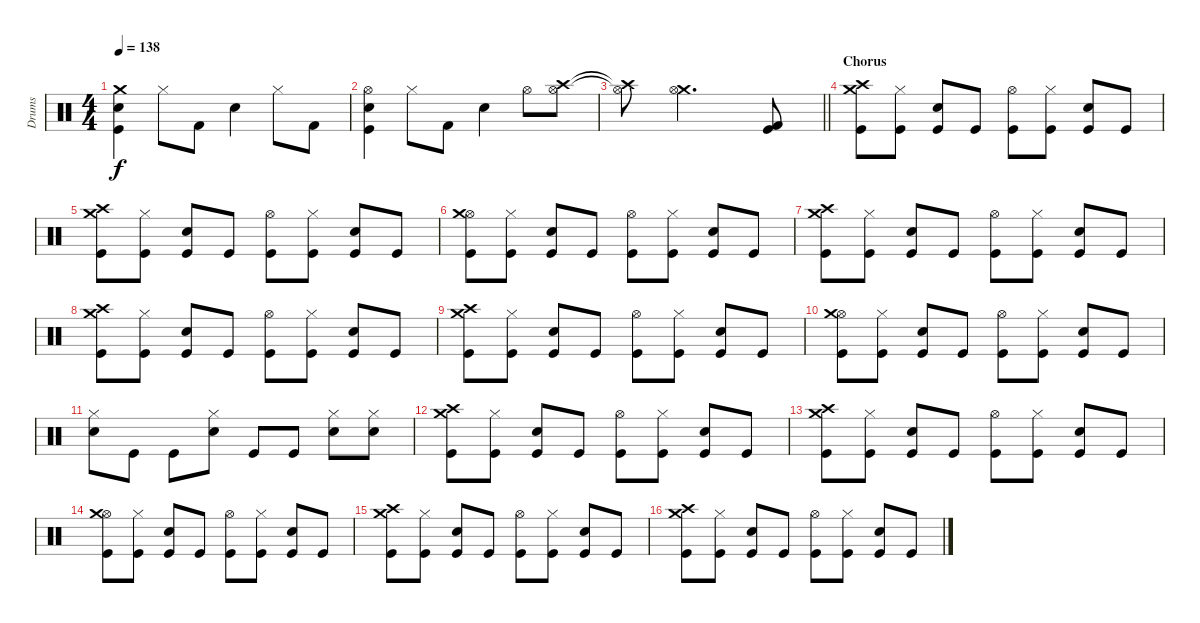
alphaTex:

\track ("Drums" "Drums") {instrument percussion}
\staff {score}
\articulation defaults
\ts (4 4)
\tempo 138
\clef neutral
\ks c
("Crash medium (hit)" "Electric Snare (hit)" "Kick (hit)").4{dy f} "Hi-Hat (closed)".8 "Kick (hit) 2".8 "Electric Snare (hit)".4 "Hi-Hat (closed)".8 "Kick (hit) 2".8 |
("Hi-Hat (open)" "Electric Snare (hit)" "Kick (hit)").4 "Hi-Hat (closed)".8 "Kick (hit) 2".8 "Electric Snare (hit)".4 "Hi-Hat (open)".8 ("Crash high (hit)" "Hi-Hat (open)").8 |
\barLineRight lightlight
("Crash high (hit)"{t} "Hi-Hat (open)"{t}).8 ("Crash medium (hit)" "Hi-Hat (open)").2{d} ("Kick (hit)" "Kick (hit) 2").8{volume 13} |
\section ("" "Chorus")
("Kick (hit)" "Crash high (hit)" "Crash medium (hit)").8 ("Hi-Hat (closed)" "Kick (hit)").8 ("Electric Snare (hit)" "Kick (hit)").8 "Kick (hit)".8 ("Hi-Hat (open)" "Kick (hit)").8 ("Hi-Hat (closed)" "Kick (hit)").8 ("Electric Snare (hit)" "Kick (hit)").8 "Kick (hit)".8 |
("Kick (hit)" "Crash high (hit)" "Crash medium (hit)").8 ("Hi-Hat (closed)" "Kick (hit)").8 ("Electric Snare (hit)" "Kick (hit)").8 "Kick (hit)".8 ("Hi-Hat (open)" "Kick (hit)").8 ("Hi-Hat (closed)" "Kick (hit)").8 ("Electric Snare (hit)" "Kick (hit)").8 "Kick (hit)".8 |
("Kick (hit)" "Hi-Hat (open)" "Crash medium (hit)").8 ("Hi-Hat (closed)" "Kick (hit)").8 ("Electric Snare (hit)" "Kick (hit)").8 "Kick (hit)".8 ("Hi-Hat (open)" "Kick (hit)").8 ("Hi-Hat (closed)" "Kick (hit)").8 ("Electric Snare (hit)" "Kick (hit)").8 "Kick (hit)".8 |
("Kick (hit)" "Crash high (hit)" "Crash medium (hit)").8 ("Hi-Hat (closed)" "Kick (hit)").8 ("Electric Snare (hit)" "Kick (hit)").8 "Kick (hit)".8 ("Hi-Hat (open)" "Kick (hit)").8 ("Hi-Hat (closed)" "Kick (hit)").8 ("Electric Snare (hit)" "Kick (hit)").8 "Kick (hit)".8 |
("Kick (hit)" "Crash high (hit)" "Crash medium (hit)").8 ("Hi-Hat (closed)" "Kick (hit)").8 ("Electric Snare (hit)" "Kick (hit)").8 "Kick (hit)".8 ("Hi-Hat (open)" "Kick (hit)").8 ("Hi-Hat (closed)" "Kick (hit)").8 ("Electric Snare (hit)" "Kick (hit)").8 "Kick (hit)".8 |
("Kick (hit)" "Crash high (hit)" "Crash medium (hit)").8 ("Hi-Hat (closed)" "Kick (hit)").8 ("Electric Snare (hit)" "Kick (hit)").8 "Kick (hit)".8 ("Hi-Hat (open)" "Kick (hit)").8 ("Hi-Hat (closed)" "Kick (hit)").8 ("Electric Snare (hit)" "Kick (hit)").8 "Kick (hit)".8 |
("Kick (hit)" "Hi-Hat (open)" "Crash medium (hit)").8 ("Hi-Hat (closed)" "Kick (hit)").8 ("Electric Snare (hit)" "Kick (hit)").8 "Kick (hit)".8 ("Hi-Hat (open)" "Kick (hit)").8 ("Hi-Hat (closed)" "Kick (hit)").8 ("Electric Snare (hit)" "Kick (hit)").8 "Kick (hit)".8 |
("Electric Snare (hit)" "Hi-Hat (closed)").8 "Kick (hit)".8 "Kick (hit)".8 ("Electric Snare (hit)" "Hi-Hat (closed)").8 "Kick (hit)".8 "Kick (hit)".8 ("Electric Snare (hit)" "Hi-Hat (closed)").8 ("Electric Snare (hit)" "Hi-Hat (closed)").8 |
("Kick (hit)" "Crash high (hit)" "Crash medium (hit)").8 ("Hi-Hat (closed)" "Kick (hit)").8 ("Electric Snare (hit)" "Kick (hit)").8 "Kick (hit)".8 ("Hi-Hat (open)" "Kick (hit)").8 ("Hi-Hat (closed)" "Kick (hit)").8 ("Electric Snare (hit)" "Kick (hit)").8 "Kick (hit)".8 |
("Kick (hit)" "Crash high (hit)" "Crash medium (hit)").8 ("Hi-Hat (closed)" "Kick (hit)").8 ("Electric Snare (hit)" "Kick (hit)").8 "Kick (hit)".8 ("Hi-Hat (open)" "Kick (hit)").8 ("Hi-Hat (closed)" "Kick (hit)").8 ("Electric Snare (hit)" "Kick (hit)").8 "Kick (hit)".8 |
("Kick (hit)" "Hi-Hat (open)" "Crash medium (hit)").8 ("Hi-Hat (closed)" "Kick (hit)").8 ("Electric Snare (hit)" "Kick (hit)").8 "Kick (hit)".8 ("Hi-Hat (open)" "Kick (hit)").8 ("Hi-Hat (closed)" "Kick (hit)").8 ("Electric Snare (hit)" "Kick (hit)").8 "Kick (hit)".8 |
("Kick (hit)" "Crash high (hit)" "Crash medium (hit)").8 ("Hi-Hat (closed)" "Kick (hit)").8 ("Electric Snare (hit)" "Kick (hit)").8 "Kick (hit)".8 ("Hi-Hat (open)" "Kick (hit)").8 ("Hi-Hat (closed)" "Kick (hit)").8 ("Electric Snare (hit)" "Kick (hit)").8 "Kick (hit)".8 |
("Kick (hit)" "Crash high (hit)" "Crash medium (hit)").8 ("Hi-Hat (closed)" "Kick (hit)").8 ("Electric Snare (hit)" "Kick (hit)").8 "Kick (hit)".8 ("Hi-Hat (open)" "Kick (hit)").8 ("Hi-Hat (closed)" "Kick (hit)").8 ("Electric Snare (hit)" "Kick (hit)").8 "Kick (hit)".8
